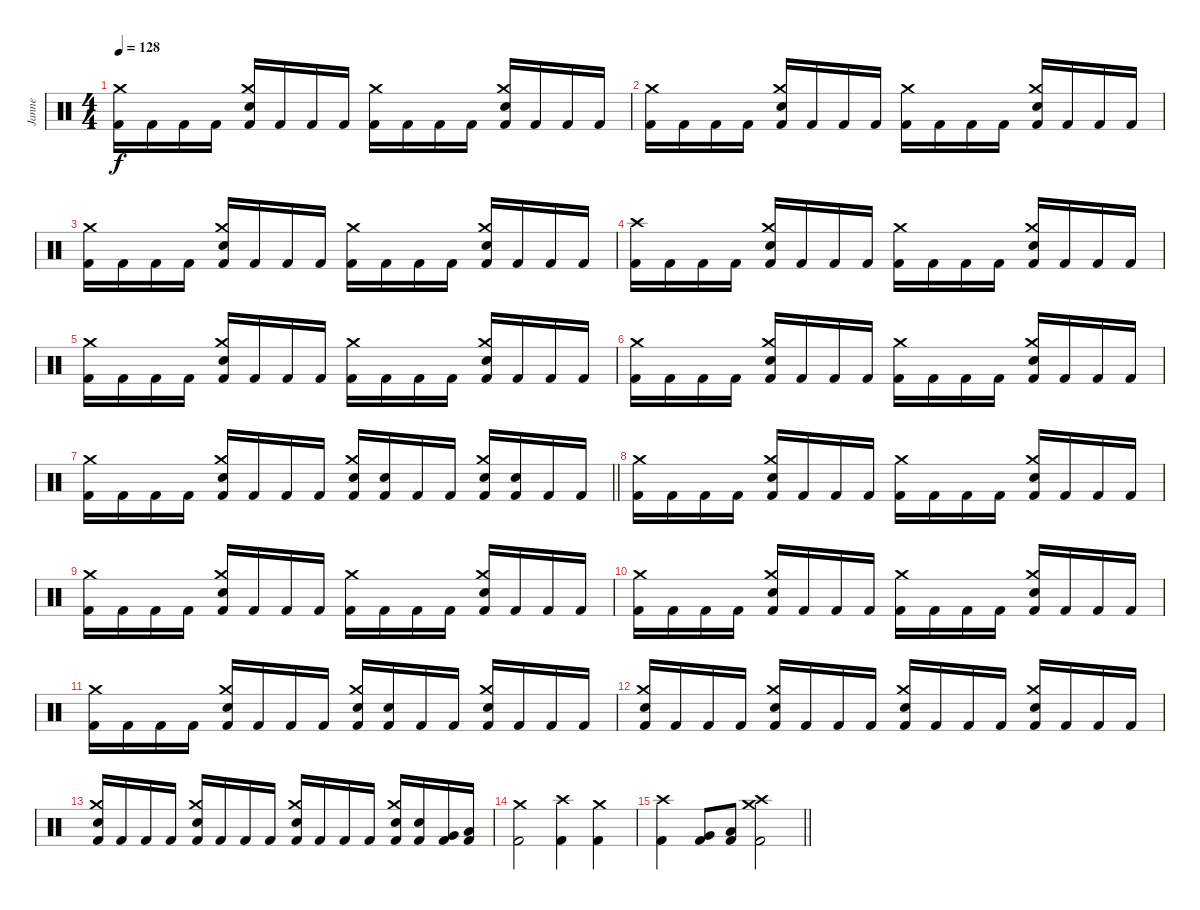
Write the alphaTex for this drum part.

\track ("Janne" "Janne") {instrument percussion}
\staff {score}
\articulation defaults
\ts (4 4)
\tempo 128
\clef neutral
\ks c
("Kick (hit) 2" "Crash medium (hit)").16{dy f} "Kick (hit) 2".16 "Kick (hit) 2".16 "Kick (hit) 2".16 ("Kick (hit) 2" "Snare (hit) 2" "Crash medium (hit)").16 "Kick (hit) 2".16 "Kick (hit) 2".16 "Kick (hit) 2".16 ("Kick (hit) 2" "Crash medium (hit)").16 "Kick (hit) 2".16 "Kick (hit) 2".16 "Kick (hit) 2".16 ("Kick (hit) 2" "Snare (hit) 2" "Crash medium (hit)").16 "Kick (hit) 2".16 "Kick (hit) 2".16 "Kick (hit) 2".16 |
("Kick (hit) 2" "Crash medium (hit)").16 "Kick (hit) 2".16 "Kick (hit) 2".16 "Kick (hit) 2".16 ("Kick (hit) 2" "Snare (hit) 2" "Crash medium (hit)").16 "Kick (hit) 2".16 "Kick (hit) 2".16 "Kick (hit) 2".16 ("Kick (hit) 2" "Crash medium (hit)").16 "Kick (hit) 2".16 "Kick (hit) 2".16 "Kick (hit) 2".16 ("Kick (hit) 2" "Snare (hit) 2" "Crash medium (hit)").16 "Kick (hit) 2".16 "Kick (hit) 2".16 "Kick (hit) 2".16 |
("Kick (hit) 2" "Crash medium (hit)").16 "Kick (hit) 2".16 "Kick (hit) 2".16 "Kick (hit) 2".16 ("Kick (hit) 2" "Snare (hit) 2" "Crash medium (hit)").16 "Kick (hit) 2".16 "Kick (hit) 2".16 "Kick (hit) 2".16 ("Kick (hit) 2" "Crash medium (hit)").16 "Kick (hit) 2".16 "Kick (hit) 2".16 "Kick (hit) 2".16 ("Kick (hit) 2" "Snare (hit) 2" "Crash medium (hit)").16 "Kick (hit) 2".16 "Kick (hit) 2".16 "Kick (hit) 2".16 |
("Kick (hit) 2" "Crash high (hit)").16 "Kick (hit) 2".16 "Kick (hit) 2".16 "Kick (hit) 2".16 ("Kick (hit) 2" "Snare (hit) 2" "Crash medium (hit)").16 "Kick (hit) 2".16 "Kick (hit) 2".16 "Kick (hit) 2".16 ("Kick (hit) 2" "Crash medium (hit)").16 "Kick (hit) 2".16 "Kick (hit) 2".16 "Kick (hit) 2".16 ("Kick (hit) 2" "Snare (hit) 2" "Crash medium (hit)").16 "Kick (hit) 2".16 "Kick (hit) 2".16 "Kick (hit) 2".16 |
("Kick (hit) 2" "Crash medium (hit)").16 "Kick (hit) 2".16 "Kick (hit) 2".16 "Kick (hit) 2".16 ("Kick (hit) 2" "Snare (hit) 2" "Crash medium (hit)").16 "Kick (hit) 2".16 "Kick (hit) 2".16 "Kick (hit) 2".16 ("Kick (hit) 2" "Crash medium (hit)").16 "Kick (hit) 2".16 "Kick (hit) 2".16 "Kick (hit) 2".16 ("Kick (hit) 2" "Snare (hit) 2" "Crash medium (hit)").16 "Kick (hit) 2".16 "Kick (hit) 2".16 "Kick (hit) 2".16 |
("Kick (hit) 2" "Crash medium (hit)").16 "Kick (hit) 2".16 "Kick (hit) 2".16 "Kick (hit) 2".16 ("Kick (hit) 2" "Snare (hit) 2" "Crash medium (hit)").16 "Kick (hit) 2".16 "Kick (hit) 2".16 "Kick (hit) 2".16 ("Kick (hit) 2" "Crash medium (hit)").16 "Kick (hit) 2".16 "Kick (hit) 2".16 "Kick (hit) 2".16 ("Kick (hit) 2" "Snare (hit) 2" "Crash medium (hit)").16 "Kick (hit) 2".16 "Kick (hit) 2".16 "Kick (hit) 2".16 |
\barLineRight lightlight
("Kick (hit) 2" "Crash medium (hit)").16 "Kick (hit) 2".16 "Kick (hit) 2".16 "Kick (hit) 2".16 ("Kick (hit) 2" "Snare (hit) 2" "Crash medium (hit)").16 "Kick (hit) 2".16 "Kick (hit) 2".16 "Kick (hit) 2".16 ("Kick (hit) 2" "Snare (hit) 2" "Crash medium (hit)").16 ("Kick (hit) 2" "Snare (hit) 2").16 "Kick (hit) 2".16 "Kick (hit) 2".16 ("Kick (hit) 2" "Snare (hit) 2" "Crash medium (hit)").16 ("Kick (hit) 2" "Snare (hit) 2").16 "Kick (hit) 2".16 "Kick (hit) 2".16 |
\section ("" "")
("Kick (hit) 2" "Crash medium (hit)").16 "Kick (hit) 2".16 "Kick (hit) 2".16 "Kick (hit) 2".16 ("Kick (hit) 2" "Snare (hit) 2" "Crash medium (hit)").16 "Kick (hit) 2".16 "Kick (hit) 2".16 "Kick (hit) 2".16 ("Kick (hit) 2" "Crash medium (hit)").16 "Kick (hit) 2".16 "Kick (hit) 2".16 "Kick (hit) 2".16 ("Kick (hit) 2" "Snare (hit) 2" "Crash medium (hit)").16 "Kick (hit) 2".16 "Kick (hit) 2".16 "Kick (hit) 2".16 |
("Kick (hit) 2" "Crash medium (hit)").16 "Kick (hit) 2".16 "Kick (hit) 2".16 "Kick (hit) 2".16 ("Kick (hit) 2" "Snare (hit) 2" "Crash medium (hit)").16 "Kick (hit) 2".16 "Kick (hit) 2".16 "Kick (hit) 2".16 ("Kick (hit) 2" "Crash medium (hit)").16 "Kick (hit) 2".16 "Kick (hit) 2".16 "Kick (hit) 2".16 ("Kick (hit) 2" "Snare (hit) 2" "Crash medium (hit)").16 "Kick (hit) 2".16 "Kick (hit) 2".16 "Kick (hit) 2".16 |
("Kick (hit) 2" "Crash medium (hit)").16 "Kick (hit) 2".16 "Kick (hit) 2".16 "Kick (hit) 2".16 ("Kick (hit) 2" "Snare (hit) 2" "Crash medium (hit)").16 "Kick (hit) 2".16 "Kick (hit) 2".16 "Kick (hit) 2".16 ("Kick (hit) 2" "Crash medium (hit)").16 "Kick (hit) 2".16 "Kick (hit) 2".16 "Kick (hit) 2".16 ("Kick (hit) 2" "Snare (hit) 2" "Crash medium (hit)").16 "Kick (hit) 2".16 "Kick (hit) 2".16 "Kick (hit) 2".16 |
("Kick (hit) 2" "Crash medium (hit)").16 "Kick (hit) 2".16 "Kick (hit) 2".16 "Kick (hit) 2".16 ("Kick (hit) 2" "Snare (hit) 2" "Crash medium (hit)").16 "Kick (hit) 2".16 "Kick (hit) 2".16 "Kick (hit) 2".16 ("Kick (hit) 2" "Snare (hit) 2" "Crash medium (hit)").16 ("Kick (hit) 2" "Snare (hit) 2").16 "Kick (hit) 2".16 "Kick (hit) 2".16 ("Kick (hit) 2" "Snare (hit) 2" "Crash medium (hit)").16 "Kick (hit) 2".16 "Kick (hit) 2".16 "Kick (hit) 2".16 |
("Kick (hit) 2" "Snare (hit) 2" "Crash medium (hit)").16 "Kick (hit) 2".16 "Kick (hit) 2".16 "Kick (hit) 2".16 ("Kick (hit) 2" "Snare (hit) 2" "Crash medium (hit)").16 "Kick (hit) 2".16 "Kick (hit) 2".16 "Kick (hit) 2".16 ("Kick (hit) 2" "Snare (hit) 2" "Crash medium (hit)").16 "Kick (hit) 2".16 "Kick (hit) 2".16 "Kick (hit) 2".16 ("Kick (hit) 2" "Snare (hit) 2" "Crash medium (hit)").16 "Kick (hit) 2".16 "Kick (hit) 2".16 "Kick (hit) 2".16 |
("Kick (hit) 2" "Snare (hit) 2" "Crash medium (hit)").16 "Kick (hit) 2".16 "Kick (hit) 2".16 "Kick (hit) 2".16 ("Kick (hit) 2" "Snare (hit) 2" "Crash medium (hit)").16 "Kick (hit) 2".16 "Kick (hit) 2".16 "Kick (hit) 2".16 ("Kick (hit) 2" "Snare (hit) 2" "Crash medium (hit)").16 "Kick (hit) 2".16 "Kick (hit) 2".16 "Kick (hit) 2".16 ("Kick (hit) 2" "Snare (hit) 2" "Crash medium (hit)").16 ("Kick (hit) 2" "Snare (hit) 2").16 ("Kick (hit) 2" "Very Low Tom (hit)").16 ("Kick (hit) 2" "Low Floor Tom (hit)").16 |
("Kick (hit) 2" "Crash medium (hit)").2 ("Kick (hit) 2" "Crash high (hit)").4 ("Kick (hit) 2" "Crash medium (hit)").4 |
\barLineRight lightlight
("Kick (hit) 2" "Crash high (hit)").4 ("Kick (hit) 2" "Very Low Tom (hit)").8 ("Kick (hit) 2" "Low Floor Tom (hit)").8 ("Kick (hit) 2" "Crash medium (hit)" "Crash high (hit)").2
